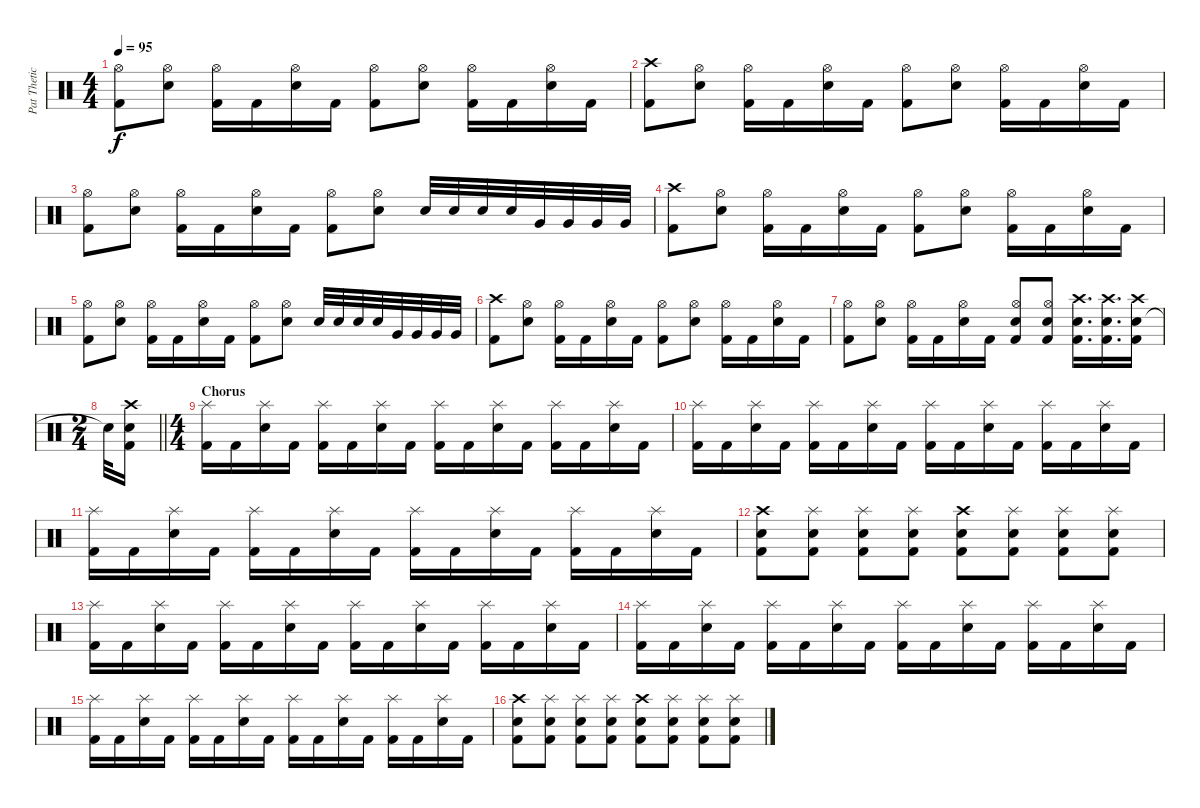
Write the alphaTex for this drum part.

\track ("Pat Thetic" "Pat Thetic") {instrument percussion}
\staff {score}
\articulation defaults
\ts (4 4)
\tempo 95
\clef neutral
\ks c
("Kick (hit) 2" "Hi-Hat (open)").8{dy f} ("Snare (hit) 2" "Hi-Hat (open)").8 ("Kick (hit) 2" "Hi-Hat (open)").16 "Kick (hit) 2".16 ("Snare (hit) 2" "Hi-Hat (open)").16 "Kick (hit) 2".16 ("Kick (hit) 2" "Hi-Hat (open)").8 ("Snare (hit) 2" "Hi-Hat (open)").8 ("Kick (hit) 2" "Hi-Hat (open)").16 "Kick (hit) 2".16 ("Snare (hit) 2" "Hi-Hat (open)").16 "Kick (hit) 2".16 |
("Kick (hit) 2" "Crash high (hit)").8 ("Snare (hit) 2" "Hi-Hat (open)").8 ("Kick (hit) 2" "Hi-Hat (open)").16 "Kick (hit) 2".16 ("Snare (hit) 2" "Hi-Hat (open)").16 "Kick (hit) 2".16 ("Kick (hit) 2" "Hi-Hat (open)").8 ("Snare (hit) 2" "Hi-Hat (open)").8 ("Kick (hit) 2" "Hi-Hat (open)").16 "Kick (hit) 2".16 ("Snare (hit) 2" "Hi-Hat (open)").16 "Kick (hit) 2".16 |
("Kick (hit) 2" "Hi-Hat (open)").8 ("Snare (hit) 2" "Hi-Hat (open)").8 ("Kick (hit) 2" "Hi-Hat (open)").16 "Kick (hit) 2".16 ("Snare (hit) 2" "Hi-Hat (open)").16 "Kick (hit) 2".16 ("Kick (hit) 2" "Hi-Hat (open)").8 ("Snare (hit) 2" "Hi-Hat (open)").8 "Snare (hit) 2".32 "Snare (hit) 2".32 "Snare (hit) 2".32 "Snare (hit) 2".32 "Very Low Tom (hit)".32 "Very Low Tom (hit)".32 "Very Low Tom (hit)".32 "Very Low Tom (hit)".32 |
("Kick (hit) 2" "Crash high (hit)").8 ("Snare (hit) 2" "Hi-Hat (open)").8 ("Kick (hit) 2" "Hi-Hat (open)").16 "Kick (hit) 2".16 ("Snare (hit) 2" "Hi-Hat (open)").16 "Kick (hit) 2".16 ("Kick (hit) 2" "Hi-Hat (open)").8 ("Snare (hit) 2" "Hi-Hat (open)").8 ("Kick (hit) 2" "Hi-Hat (open)").16 "Kick (hit) 2".16 ("Snare (hit) 2" "Hi-Hat (open)").16 "Kick (hit) 2".16 |
("Kick (hit) 2" "Hi-Hat (open)").8 ("Snare (hit) 2" "Hi-Hat (open)").8 ("Kick (hit) 2" "Hi-Hat (open)").16 "Kick (hit) 2".16 ("Snare (hit) 2" "Hi-Hat (open)").16 "Kick (hit) 2".16 ("Kick (hit) 2" "Hi-Hat (open)").8 ("Snare (hit) 2" "Hi-Hat (open)").8 "Snare (hit) 2".32 "Snare (hit) 2".32 "Snare (hit) 2".32 "Snare (hit) 2".32 "Very Low Tom (hit)".32 "Very Low Tom (hit)".32 "Very Low Tom (hit)".32 "Very Low Tom (hit)".32 |
("Kick (hit) 2" "Crash high (hit)").8 ("Snare (hit) 2" "Hi-Hat (open)").8 ("Kick (hit) 2" "Hi-Hat (open)").16 "Kick (hit) 2".16 ("Snare (hit) 2" "Hi-Hat (open)").16 "Kick (hit) 2".16 ("Kick (hit) 2" "Hi-Hat (open)").8 ("Snare (hit) 2" "Hi-Hat (open)").8 ("Kick (hit) 2" "Hi-Hat (open)").16 "Kick (hit) 2".16 ("Snare (hit) 2" "Hi-Hat (open)").16 "Kick (hit) 2".16 |
("Kick (hit) 2" "Hi-Hat (open)").8 ("Snare (hit) 2" "Hi-Hat (open)").8 ("Kick (hit) 2" "Hi-Hat (open)").16 "Kick (hit) 2".16 ("Snare (hit) 2" "Hi-Hat (open)").16 "Kick (hit) 2".16 ("Kick (hit) 2" "Snare (hit) 2" "Hi-Hat (open)").8 ("Kick (hit) 2" "Snare (hit) 2" "Hi-Hat (open)").8 ("Kick (hit) 2" "Snare (hit) 2" "Crash high (hit)").16{d} ("Kick (hit) 2" "Snare (hit) 2" "Crash high (hit)").16{d} ("Snare (hit) 2" "Kick (hit) 2" "Crash high (hit)").16 |
\ts (2 4)
\barLineRight lightlight "Snare (hit)"{t}.32
("Snare (hit) 2" "Kick (hit) 2" "Crash high (hit)").16 |
\ts (4 4)
\section ("" "Chorus")
("Splash (hit)" "Kick (hit) 2").16 "Kick (hit) 2".16 ("Snare (hit) 2" "Splash (hit)").16 "Kick (hit) 2".16 ("Splash (hit)" "Kick (hit) 2").16 "Kick (hit) 2".16 ("Snare (hit) 2" "Splash (hit)").16 "Kick (hit) 2".16 ("Splash (hit)" "Kick (hit) 2").16 "Kick (hit) 2".16 ("Snare (hit) 2" "Splash (hit)").16 "Kick (hit) 2".16 ("Splash (hit)" "Kick (hit) 2").16 "Kick (hit) 2".16 ("Snare (hit) 2" "Splash (hit)").16 "Kick (hit) 2".16 |
("Splash (hit)" "Kick (hit) 2").16 "Kick (hit) 2".16 ("Snare (hit) 2" "Splash (hit)").16 "Kick (hit) 2".16 ("Splash (hit)" "Kick (hit) 2").16 "Kick (hit) 2".16 ("Snare (hit) 2" "Splash (hit)").16 "Kick (hit) 2".16 ("Splash (hit)" "Kick (hit) 2").16 "Kick (hit) 2".16 ("Snare (hit) 2" "Splash (hit)").16 "Kick (hit) 2".16 ("Splash (hit)" "Kick (hit) 2").16 "Kick (hit) 2".16 ("Snare (hit) 2" "Splash (hit)").16 "Kick (hit) 2".16 |
("Splash (hit)" "Kick (hit) 2").16 "Kick (hit) 2".16 ("Snare (hit) 2" "Splash (hit)").16 "Kick (hit) 2".16 ("Splash (hit)" "Kick (hit) 2").16 "Kick (hit) 2".16 ("Snare (hit) 2" "Splash (hit)").16 "Kick (hit) 2".16 ("Splash (hit)" "Kick (hit) 2").16 "Kick (hit) 2".16 ("Snare (hit) 2" "Splash (hit)").16 "Kick (hit) 2".16 ("Splash (hit)" "Kick (hit) 2").16 "Kick (hit) 2".16 ("Snare (hit) 2" "Splash (hit)").16 "Kick (hit) 2".16 |
("Kick (hit) 2" "Snare (hit) 2" "Crash high (hit)").8 ("Kick (hit) 2" "Snare (hit) 2" "Splash (hit)").8 ("Kick (hit) 2" "Snare (hit) 2" "Splash (hit)").8 ("Kick (hit) 2" "Snare (hit) 2" "Splash (hit)").8 ("Kick (hit) 2" "Snare (hit) 2" "Crash high (hit)").8 ("Kick (hit) 2" "Snare (hit) 2" "Splash (hit)").8 ("Kick (hit) 2" "Snare (hit) 2" "Splash (hit)").8 ("Kick (hit) 2" "Snare (hit) 2" "Splash (hit)").8 |
("Splash (hit)" "Kick (hit) 2").16 "Kick (hit) 2".16 ("Snare (hit) 2" "Splash (hit)").16 "Kick (hit) 2".16 ("Splash (hit)" "Kick (hit) 2").16 "Kick (hit) 2".16 ("Snare (hit) 2" "Splash (hit)").16 "Kick (hit) 2".16 ("Splash (hit)" "Kick (hit) 2").16 "Kick (hit) 2".16 ("Snare (hit) 2" "Splash (hit)").16 "Kick (hit) 2".16 ("Splash (hit)" "Kick (hit) 2").16 "Kick (hit) 2".16 ("Snare (hit) 2" "Splash (hit)").16 "Kick (hit) 2".16 |
("Splash (hit)" "Kick (hit) 2").16 "Kick (hit) 2".16 ("Snare (hit) 2" "Splash (hit)").16 "Kick (hit) 2".16 ("Splash (hit)" "Kick (hit) 2").16 "Kick (hit) 2".16 ("Snare (hit) 2" "Splash (hit)").16 "Kick (hit) 2".16 ("Splash (hit)" "Kick (hit) 2").16 "Kick (hit) 2".16 ("Snare (hit) 2" "Splash (hit)").16 "Kick (hit) 2".16 ("Splash (hit)" "Kick (hit) 2").16 "Kick (hit) 2".16 ("Snare (hit) 2" "Splash (hit)").16 "Kick (hit) 2".16 |
("Splash (hit)" "Kick (hit) 2").16 "Kick (hit) 2".16 ("Snare (hit) 2" "Splash (hit)").16 "Kick (hit) 2".16 ("Splash (hit)" "Kick (hit) 2").16 "Kick (hit) 2".16 ("Snare (hit) 2" "Splash (hit)").16 "Kick (hit) 2".16 ("Splash (hit)" "Kick (hit) 2").16 "Kick (hit) 2".16 ("Snare (hit) 2" "Splash (hit)").16 "Kick (hit) 2".16 ("Splash (hit)" "Kick (hit) 2").16 "Kick (hit) 2".16 ("Snare (hit) 2" "Splash (hit)").16 "Kick (hit) 2".16 |
("Kick (hit) 2" "Snare (hit) 2" "Crash high (hit)").8 ("Kick (hit) 2" "Snare (hit) 2" "Splash (hit)").8 ("Kick (hit) 2" "Snare (hit) 2" "Splash (hit)").8 ("Kick (hit) 2" "Snare (hit) 2" "Splash (hit)").8 ("Kick (hit) 2" "Snare (hit) 2" "Crash high (hit)").8 ("Kick (hit) 2" "Snare (hit) 2" "Splash (hit)").8 ("Kick (hit) 2" "Snare (hit) 2" "Splash (hit)").8 ("Kick (hit) 2" "Snare (hit) 2" "Splash (hit)").8
